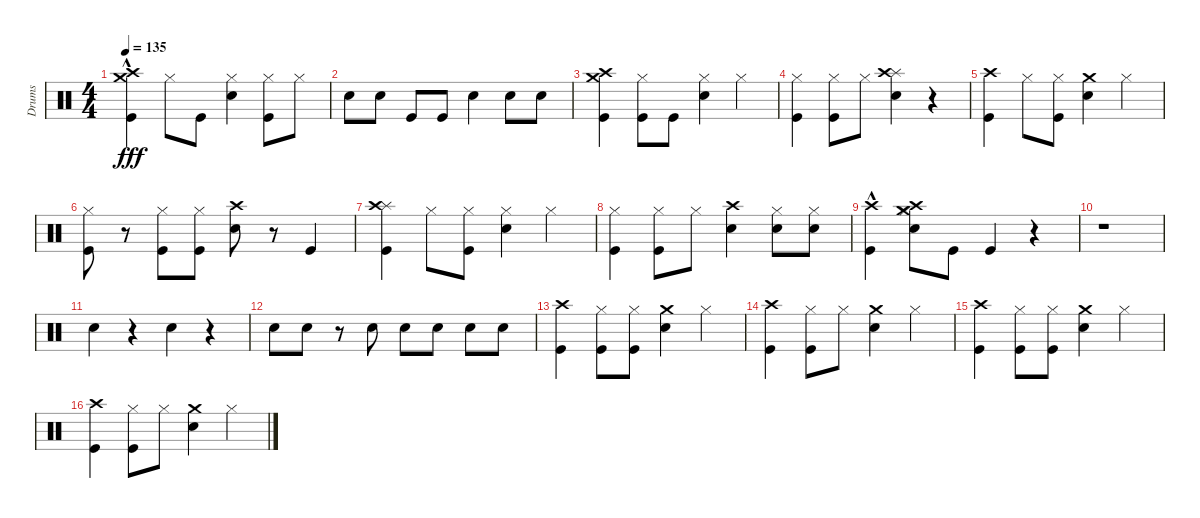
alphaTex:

\track ("Drums" "Drums") {instrument percussion}
\staff {score}
\articulation defaults
\ts (4 4)
\tempo 135
\clef neutral
\ks c
("Crash medium (hit)" "Crash high (hit)"{hac} "Kick (hit)"{hac}).4{dy fff} "Hi-Hat (closed)".8 "Kick (hit)".8 ("Hi-Hat (closed)" "Snare (hit) 2").4 ("Hi-Hat (closed)" "Kick (hit)").8 "Hi-Hat (closed)".8 |
"Snare (hit) 2".8 "Snare (hit) 2".8 "Kick (hit)".8 "Kick (hit)".8 "Snare (hit) 2".4 "Snare (hit) 2".8 "Snare (hit) 2".8 |
("Crash medium (hit)" "Kick (hit)" "Crash high (hit)").4 ("Hi-Hat (closed)" "Kick (hit)").8 "Kick (hit)".8 ("Hi-Hat (closed)" "Snare (hit) 2").4 "Hi-Hat (closed)".4 |
("Hi-Hat (closed)" "Kick (hit)").4 ("Hi-Hat (closed)" "Kick (hit)").8 "Hi-Hat (closed)".8 ("Splash (hit)" "Crash high (hit)" "Snare (hit) 2").4 r.4 |
("Crash high (hit)" "Kick (hit)").4 "Hi-Hat (closed)".8 ("Kick (hit)" "Hi-Hat (closed)").8 ("Snare (hit) 2" "Crash medium (hit)").4 "Hi-Hat (closed)".4 |
("Hi-Hat (closed)" "Kick (hit)").8 r.8 ("Kick (hit)" "Hi-Hat (closed)").8 ("Hi-Hat (closed)" "Kick (hit)").8 ("Crash high (hit)" "Snare (hit) 2").8 r.8 "Kick (hit)".4 |
("Splash (hit)" "Kick (hit)" "Crash high (hit)").4 "Hi-Hat (closed)".8 ("Kick (hit)" "Hi-Hat (closed)").8 ("Hi-Hat (closed)" "Snare (hit) 2").4 "Hi-Hat (closed)".4 |
("Hi-Hat (closed)" "Kick (hit)").4 ("Hi-Hat (closed)" "Kick (hit)").8 "Hi-Hat (closed)".8 ("Crash high (hit)" "Snare (hit) 2").4 ("Hi-Hat (closed)" "Snare (hit) 2").8 ("Hi-Hat (closed)" "Snare (hit) 2").8 |
("Crash high (hit)" "Kick (hit)"{hac}).4 ("Crash high (hit)" "Snare (hit) 2" "Crash medium (hit)" "Hi-Hat (closed)").8 "Kick (hit)".8 "Kick (hit)".4 r.4 |
r.1 |
"Snare (hit) 2".4 r.4 "Snare (hit) 2".4 r.4 |
"Snare (hit) 2".8 "Snare (hit) 2".8 r.8 "Snare (hit) 2".8 "Snare (hit) 2".8 "Snare (hit) 2".8 "Snare (hit) 2".8 "Snare (hit) 2".8 |
("Crash high (hit)" "Kick (hit)").4 ("Kick (hit)" "Hi-Hat (closed)").8 ("Kick (hit)" "Hi-Hat (closed)").8 ("Crash medium (hit)" "Snare (hit) 2").4 "Hi-Hat (closed)".4 |
("Crash high (hit)" "Kick (hit)").4 ("Hi-Hat (closed)" "Kick (hit)").8 "Hi-Hat (closed)".8 ("Crash medium (hit)" "Snare (hit) 2").4 "Hi-Hat (closed)".4 |
("Crash high (hit)" "Kick (hit)").4 ("Kick (hit)" "Hi-Hat (closed)").8 ("Kick (hit)" "Hi-Hat (closed)").8 ("Crash medium (hit)" "Snare (hit) 2").4 "Hi-Hat (closed)".4 |
("Crash high (hit)" "Kick (hit)").4 ("Hi-Hat (closed)" "Kick (hit)").8 "Hi-Hat (closed)".8 ("Crash medium (hit)" "Snare (hit) 2").4 "Hi-Hat (closed)".4
